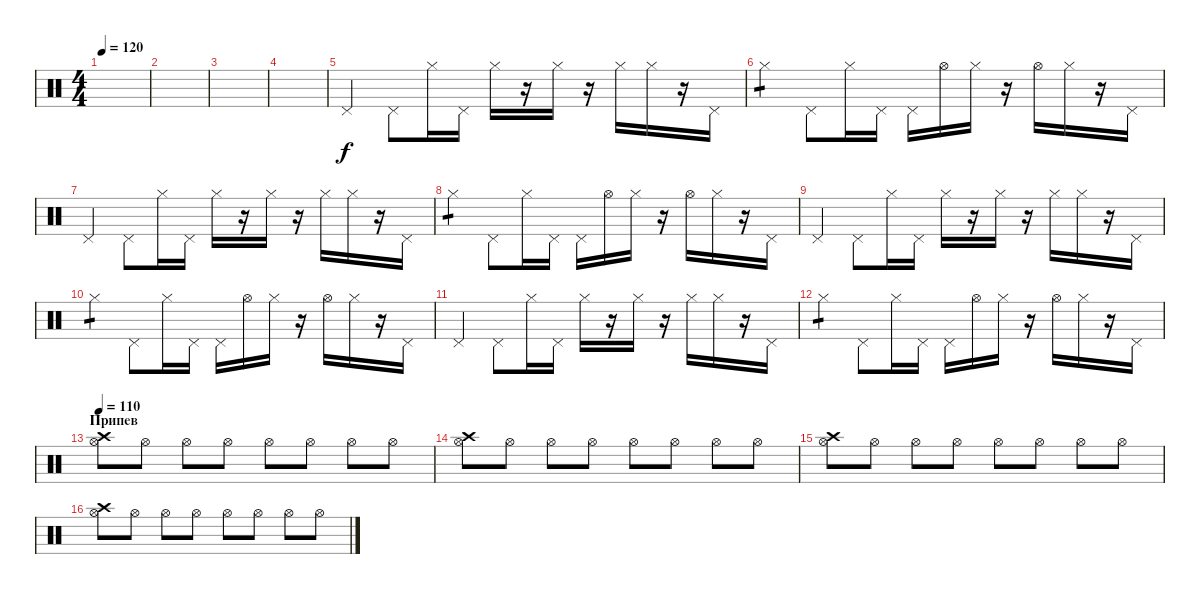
\track "" {instrument percussion}
\staff {score}
\articulation defaults
\ts (4 4)
\tempo 120
\clef neutral
\ks c
|
|
|
|
"Pedal Hi-Hat (hit)".4 "Pedal Hi-Hat (hit)".8 "Hi-Hat (closed)".16 "Pedal Hi-Hat (hit)".16 "Hi-Hat (closed)".16 r.16 "Hi-Hat (closed)".16 r.16 "Hi-Hat (closed)".16 "Hi-Hat (closed)".16 r.16 "Pedal Hi-Hat (hit)".16 |
"Hi-Hat (closed)".4{tp 1} "Pedal Hi-Hat (hit)".8 "Hi-Hat (closed)".16 "Pedal Hi-Hat (hit)".16 "Pedal Hi-Hat (hit)".16 "Hi-Hat (open)".16 "Hi-Hat (closed)".16 r.16 "Hi-Hat (open)".16 "Hi-Hat (closed)".16 r.16 "Pedal Hi-Hat (hit)".16 |
"Pedal Hi-Hat (hit)".4 "Pedal Hi-Hat (hit)".8 "Hi-Hat (closed)".16 "Pedal Hi-Hat (hit)".16 "Hi-Hat (closed)".16 r.16 "Hi-Hat (closed)".16 r.16 "Hi-Hat (closed)".16 "Hi-Hat (closed)".16 r.16 "Pedal Hi-Hat (hit)".16 |
"Hi-Hat (closed)".4{tp 1} "Pedal Hi-Hat (hit)".8 "Hi-Hat (closed)".16 "Pedal Hi-Hat (hit)".16 "Pedal Hi-Hat (hit)".16 "Hi-Hat (open)".16 "Hi-Hat (closed)".16 r.16 "Hi-Hat (open)".16 "Hi-Hat (closed)".16 r.16 "Pedal Hi-Hat (hit)".16 |
"Pedal Hi-Hat (hit)".4 "Pedal Hi-Hat (hit)".8 "Hi-Hat (closed)".16 "Pedal Hi-Hat (hit)".16 "Hi-Hat (closed)".16 r.16 "Hi-Hat (closed)".16 r.16 "Hi-Hat (closed)".16 "Hi-Hat (closed)".16 r.16 "Pedal Hi-Hat (hit)".16 |
"Hi-Hat (closed)".4{tp 1} "Pedal Hi-Hat (hit)".8 "Hi-Hat (closed)".16 "Pedal Hi-Hat (hit)".16 "Pedal Hi-Hat (hit)".16 "Hi-Hat (open)".16 "Hi-Hat (closed)".16 r.16 "Hi-Hat (open)".16 "Hi-Hat (closed)".16 r.16 "Pedal Hi-Hat (hit)".16 |
"Pedal Hi-Hat (hit)".4 "Pedal Hi-Hat (hit)".8 "Hi-Hat (closed)".16 "Pedal Hi-Hat (hit)".16 "Hi-Hat (closed)".16 r.16 "Hi-Hat (closed)".16 r.16 "Hi-Hat (closed)".16 "Hi-Hat (closed)".16 r.16 "Pedal Hi-Hat (hit)".16 |
"Hi-Hat (closed)".4{tp 1} "Pedal Hi-Hat (hit)".8 "Hi-Hat (closed)".16 "Pedal Hi-Hat (hit)".16 "Pedal Hi-Hat (hit)".16 "Hi-Hat (open)".16 "Hi-Hat (closed)".16 r.16 "Hi-Hat (open)".16 "Hi-Hat (closed)".16 r.16 "Pedal Hi-Hat (hit)".16 |
\section ("" "Припев")
\tempo 110
("Crash high (hit)" "Hi-Hat (open)").8 "Hi-Hat (open)".8 "Hi-Hat (open)".8 "Hi-Hat (open)".8 "Hi-Hat (open)".8 "Hi-Hat (open)".8 "Hi-Hat (open)".8 "Hi-Hat (open)".8 |
("Crash high (hit)" "Hi-Hat (open)").8 "Hi-Hat (open)".8 "Hi-Hat (open)".8 "Hi-Hat (open)".8 "Hi-Hat (open)".8 "Hi-Hat (open)".8 "Hi-Hat (open)".8 "Hi-Hat (open)".8 |
("Crash high (hit)" "Hi-Hat (open)").8 "Hi-Hat (open)".8 "Hi-Hat (open)".8 "Hi-Hat (open)".8 "Hi-Hat (open)".8 "Hi-Hat (open)".8 "Hi-Hat (open)".8 "Hi-Hat (open)".8 |
("Crash high (hit)" "Hi-Hat (open)").8 "Hi-Hat (open)".8 "Hi-Hat (open)".8 "Hi-Hat (open)".8 "Hi-Hat (open)".8 "Hi-Hat (open)".8 "Hi-Hat (open)".8 "Hi-Hat (open)".8
